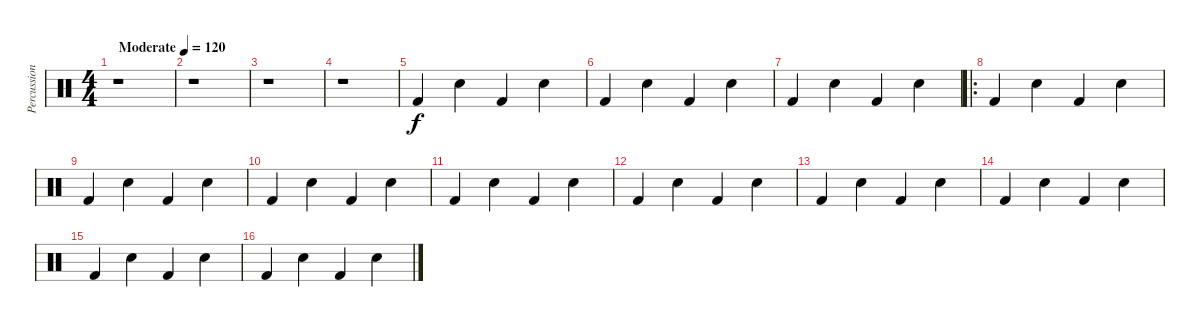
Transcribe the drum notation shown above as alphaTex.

\track ("Percussions" "Percussion") {instrument percussion}
\staff {score}
\articulation defaults
\ts (4 4)
\tempo (120 "Moderate")
\clef neutral
\ks c
r.1{dy f} |
r.1 |
r.1 |
r.1 |
"Kick (hit) 2".4 "Snare (hit) 2".4 "Kick (hit) 2".4 "Snare (hit) 2".4 |
"Kick (hit) 2".4 "Snare (hit) 2".4 "Kick (hit) 2".4 "Snare (hit) 2".4 |
"Kick (hit) 2".4 "Snare (hit) 2".4 "Kick (hit) 2".4 "Snare (hit) 2".4 |
\ro "Kick (hit) 2".4 "Snare (hit) 2".4 "Kick (hit) 2".4 "Snare (hit) 2".4
|
"Kick (hit) 2".4 "Snare (hit) 2".4 "Kick (hit) 2".4 "Snare (hit) 2".4 |
"Kick (hit) 2".4 "Snare (hit) 2".4 "Kick (hit) 2".4 "Snare (hit) 2".4 |
"Kick (hit) 2".4 "Snare (hit) 2".4 "Kick (hit) 2".4 "Snare (hit) 2".4 |
"Kick (hit) 2".4 "Snare (hit) 2".4 "Kick (hit) 2".4 "Snare (hit) 2".4 |
"Kick (hit) 2".4 "Snare (hit) 2".4 "Kick (hit) 2".4 "Snare (hit) 2".4 |
"Kick (hit) 2".4 "Snare (hit) 2".4 "Kick (hit) 2".4 "Snare (hit) 2".4 |
"Kick (hit) 2".4 "Snare (hit) 2".4 "Kick (hit) 2".4 "Snare (hit) 2".4 |
"Kick (hit) 2".4 "Snare (hit) 2".4 "Kick (hit) 2".4 "Snare (hit) 2".4
